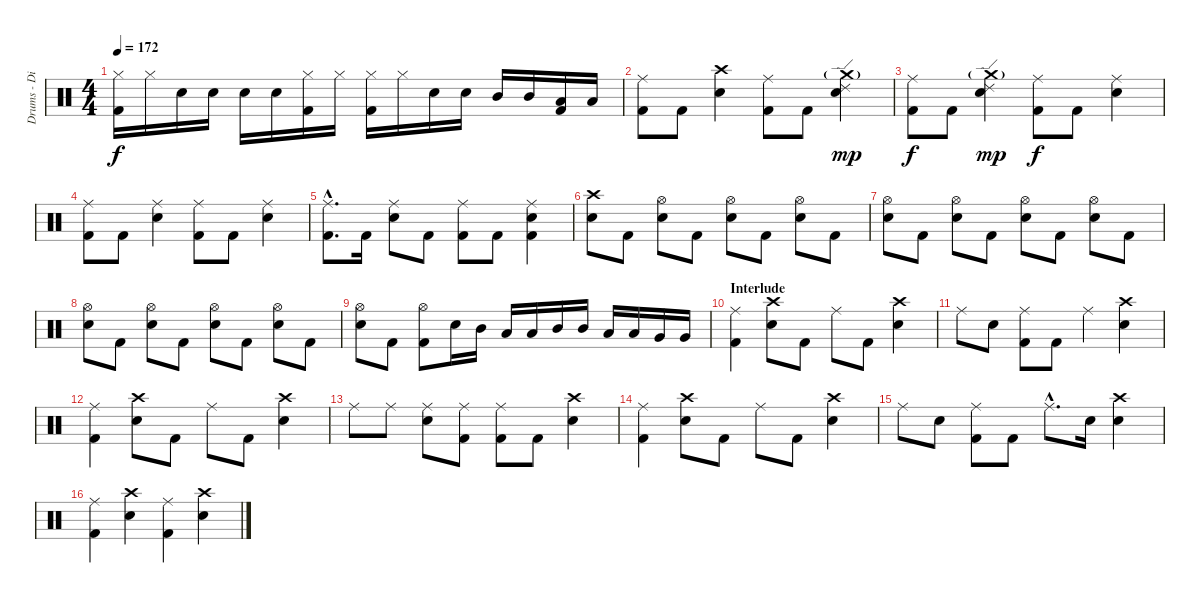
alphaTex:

\track ("Drums - Dino Campanella" "Drums - Di") {instrument percussion}
\staff {score}
\articulation defaults
\ts (4 4)
\tempo 172
\clef neutral
\ks c
("Hi-Hat (closed)" "Kick (hit) 2").16{dy f} "Hi-Hat (closed)".16 "Electric Snare (hit)".16 "Electric Snare (hit)".16 "Electric Snare (hit)".16 "Electric Snare (hit)".16 ("Hi-Hat (closed)" "Kick (hit) 2").16 "Hi-Hat (closed)".16 ("Hi-Hat (closed)" "Kick (hit) 2").16 "Hi-Hat (closed)".16 "Electric Snare (hit)".16 "Electric Snare (hit)".16 "Mid Tom (hit)".16 "Mid Tom (hit)".16 ("Low Tom (hit)" "Kick (hit) 2").16 "Low Tom (hit)".16 |
("Ride (middle)" "Kick (hit) 2").8 "Kick (hit) 2".8 ("Crash high (hit)" "Electric Snare (hit)").4 ("Ride (middle)" "Kick (hit) 2").8 "Kick (hit) 2".8 ("Crash medium (hit)"{g} "Ride (edge) 2" "Electric Snare (hit)").4{dy mp} |
("Ride (middle)" "Kick (hit) 2").8{dy f} "Kick (hit) 2".8 ("Crash medium (hit)"{g} "Ride (edge) 2" "Electric Snare (hit)").4{dy mp} ("Ride (middle)" "Kick (hit) 2").8{dy f} "Kick (hit) 2".8 ("Ride (middle)" "Electric Snare (hit)").4 |
("Ride (middle)" "Kick (hit) 2").8 "Kick (hit) 2".8 ("Ride (middle)" "Electric Snare (hit)").4 ("Ride (middle)" "Kick (hit) 2").8 "Kick (hit) 2".8 ("Ride (middle)" "Electric Snare (hit)").4 |
("Ride (middle)"{hac} "Kick (hit) 2"{hac}).8{d} "Kick (hit) 2".16 ("Ride (middle)" "Electric Snare (hit)").8 "Kick (hit) 2".8 ("Ride (middle)" "Kick (hit) 2").8 "Kick (hit) 2".8 ("Ride (middle)" "Electric Snare (hit)" "Kick (hit) 2").4 |
("Crash high (hit)" "Electric Snare (hit)").8 "Kick (hit) 2".8 ("Hi-Hat (open)" "Electric Snare (hit)").8 "Kick (hit) 2".8 ("Hi-Hat (open)" "Electric Snare (hit)").8 "Kick (hit) 2".8 ("Hi-Hat (open)" "Electric Snare (hit)").8 "Kick (hit) 2".8 |
("Hi-Hat (open)" "Electric Snare (hit)").8 "Kick (hit) 2".8 ("Hi-Hat (open)" "Electric Snare (hit)").8 "Kick (hit) 2".8 ("Hi-Hat (open)" "Electric Snare (hit)").8 "Kick (hit) 2".8 ("Hi-Hat (open)" "Electric Snare (hit)").8 "Kick (hit) 2".8 |
("Hi-Hat (open)" "Electric Snare (hit)").8 "Kick (hit) 2".8 ("Hi-Hat (open)" "Electric Snare (hit)").8 "Kick (hit) 2".8 ("Hi-Hat (open)" "Electric Snare (hit)").8 "Kick (hit) 2".8 ("Hi-Hat (open)" "Electric Snare (hit)").8 "Kick (hit) 2".8 |
("Hi-Hat (open)" "Electric Snare (hit)").8 "Kick (hit) 2".8 ("Hi-Hat (open)" "Kick (hit) 2").8 "Electric Snare (hit)".16 "Mid Tom (hit)".16 "Low Tom (hit)".16 "Low Tom (hit)".16 "Mid Tom (hit)".16 "Mid Tom (hit)".16 "Low Tom (hit)".16 "Low Tom (hit)".16 "Very Low Tom (hit)".16 "Very Low Tom (hit)".16 |
\section ("" "Interlude")
("Ride (middle)" "Kick (hit) 2").4 ("Crash high (hit)" "Electric Snare (hit)").8 "Kick (hit) 2".8 "Ride (middle)".8 "Kick (hit) 2".8 ("Crash high (hit)" "Electric Snare (hit)").4 |
"Ride (middle)".8 "Electric Snare (hit)".8 ("Ride (middle)" "Kick (hit) 2").8 "Kick (hit) 2".8 "Ride (middle)".4 ("Crash high (hit)" "Electric Snare (hit)").4 |
("Ride (middle)" "Kick (hit) 2").4 ("Crash high (hit)" "Electric Snare (hit)").8 "Kick (hit) 2".8 "Ride (middle)".8 "Kick (hit) 2".8 ("Crash high (hit)" "Electric Snare (hit)").4 |
"Ride (middle)".8 "Ride (middle)".8 ("Ride (middle)" "Electric Snare (hit)").8 ("Ride (middle)" "Kick (hit) 2").8 ("Ride (middle)" "Kick (hit) 2").8 "Kick (hit) 2".8 ("Crash high (hit)" "Electric Snare (hit)").4 |
("Ride (middle)" "Kick (hit) 2").4 ("Crash high (hit)" "Electric Snare (hit)").8 "Kick (hit) 2".8 "Ride (middle)".8 "Kick (hit) 2".8 ("Crash high (hit)" "Electric Snare (hit)").4 |
"Ride (middle)".8 "Electric Snare (hit)".8 ("Ride (middle)" "Kick (hit) 2").8 "Kick (hit) 2".8 "Ride (middle)"{hac}.8{d} "Electric Snare (hit)".16 ("Crash high (hit)" "Electric Snare (hit)").4 |
("Ride (middle)" "Kick (hit) 2").4 ("Crash high (hit)" "Electric Snare (hit)").4 ("Ride (middle)" "Kick (hit) 2").4 ("Crash high (hit)" "Electric Snare (hit)").4
